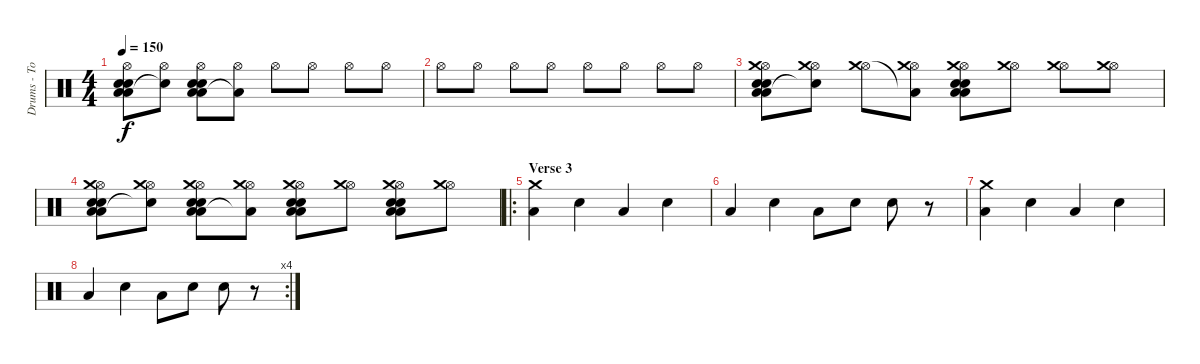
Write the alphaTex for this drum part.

\track ("Drums - Tom" "Drums - To") {instrument percussion}
\staff {score}
\articulation defaults
\ts (4 4)
\tempo 150
\clef neutral
\ks c
("Hi-Hat (open)" "Low Floor Tom (hit)" "Low Floor Tom (hit)" "Snare (hit) 2" "Snare (hit) 2").8{dy f} ("Hi-Hat (open)" "Snare (hit)"{t}).8 ("Hi-Hat (open)" "Low Floor Tom (hit)" "Low Floor Tom (hit)" "Snare (hit) 2" "Snare (hit) 2").8 ("Hi-Hat (open)" "Low Floor Tom (hit)"{t}).8 "Hi-Hat (open)".8 "Hi-Hat (open)".8 "Hi-Hat (open)".8 "Hi-Hat (open)".8 |
"Hi-Hat (open)".8 "Hi-Hat (open)".8 "Hi-Hat (open)".8 "Hi-Hat (open)".8 "Hi-Hat (open)".8 "Hi-Hat (open)".8 "Hi-Hat (open)".8 "Hi-Hat (open)".8 |
("Hi-Hat (open)" "Low Floor Tom (hit)" "Low Floor Tom (hit)" "Snare (hit) 2" "Snare (hit) 2" "Crash medium (hit)").8 ("Hi-Hat (open)" "Snare (hit)"{t} "Crash medium (hit)").8 ("Hi-Hat (open)" "Crash medium (hit)").8 ("Hi-Hat (open)" "Low Floor Tom (hit)"{t} "Crash medium (hit)").8 ("Hi-Hat (open)" "Low Floor Tom (hit)" "Low Floor Tom (hit)" "Snare (hit) 2" "Snare (hit) 2" "Crash medium (hit)").8 ("Hi-Hat (open)" "Crash medium (hit)").8 ("Hi-Hat (open)" "Crash medium (hit)").8 ("Hi-Hat (open)" "Crash medium (hit)").8 |
("Hi-Hat (open)" "Low Floor Tom (hit)" "Low Floor Tom (hit)" "Snare (hit) 2" "Snare (hit) 2" "Crash medium (hit)").8 ("Hi-Hat (open)" "Snare (hit)"{t} "Crash medium (hit)").8 ("Hi-Hat (open)" "Low Floor Tom (hit)" "Low Floor Tom (hit)" "Snare (hit) 2" "Snare (hit) 2" "Crash medium (hit)").8 ("Hi-Hat (open)" "Low Floor Tom (hit)"{t} "Crash medium (hit)").8 ("Hi-Hat (open)" "Low Floor Tom (hit)" "Low Floor Tom (hit)" "Snare (hit) 2" "Snare (hit) 2" "Crash medium (hit)").8 ("Hi-Hat (open)" "Crash medium (hit)").8 ("Hi-Hat (open)" "Low Floor Tom (hit)" "Low Floor Tom (hit)" "Snare (hit) 2" "Snare (hit) 2" "Crash medium (hit)").8 ("Hi-Hat (open)" "Crash medium (hit)").8 |
\ro
\section ("" "Verse 3")
("Low Floor Tom (hit)" "Crash medium (hit)").4 "Snare (hit) 2".4 "Low Floor Tom (hit)".4 "Snare (hit) 2".4 |
"Low Floor Tom (hit)".4 "Snare (hit) 2".4 "Low Floor Tom (hit)".8 "Snare (hit) 2".8 "Snare (hit) 2".8 r.8 |
("Low Floor Tom (hit)" "Crash medium (hit)").4 "Snare (hit) 2".4 "Low Floor Tom (hit)".4 "Snare (hit) 2".4 |
\rc 4 "Low Floor Tom (hit)".4 "Snare (hit) 2".4 "Low Floor Tom (hit)".8 "Snare (hit) 2".8 "Snare (hit) 2".8
r.8
